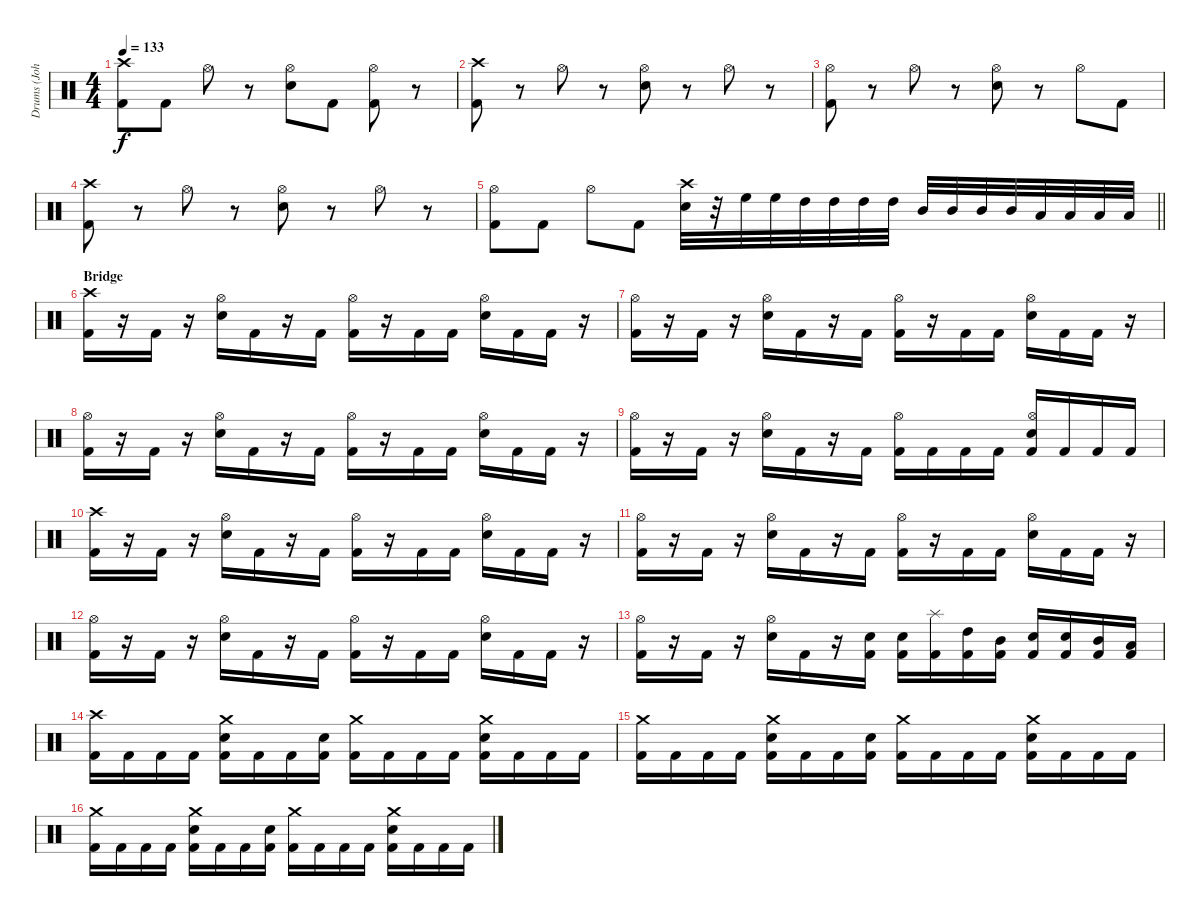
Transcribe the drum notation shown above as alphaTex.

\track ("Drums (John)" "Drums (Joh") {instrument percussion}
\staff {score}
\articulation defaults
\ts (4 4)
\tempo 133
\clef neutral
\ks c
("Crash high (hit)" "Kick (hit) 2").8{dy f} "Kick (hit) 2".8 "Hi-Hat (open)".8 r.8 ("Hi-Hat (open)" "Electric Snare (hit)").8 "Kick (hit) 2".8 ("Hi-Hat (open)" "Kick (hit) 2").8 r.8 |
("Crash high (hit)" "Kick (hit) 2").8 r.8 "Hi-Hat (open)".8 r.8 ("Hi-Hat (open)" "Electric Snare (hit)").8 r.8 "Hi-Hat (open)".8 r.8 |
("Hi-Hat (open)" "Kick (hit) 2").8 r.8 "Hi-Hat (open)".8 r.8 ("Hi-Hat (open)" "Electric Snare (hit)").8 r.8 "Hi-Hat (open)".8 "Kick (hit) 2".8 |
("Crash high (hit)" "Kick (hit) 2").8 r.8 "Hi-Hat (open)".8 r.8 ("Hi-Hat (open)" "Electric Snare (hit)").8 r.8 "Hi-Hat (open)".8 r.8 |
\barLineRight lightlight
("Hi-Hat (open)" "Kick (hit) 2").8 "Kick (hit) 2".8 "Hi-Hat (open)".8 "Kick (hit) 2".8 ("Crash high (hit)" "Electric Snare (hit)").32 r.32 "High Floor Tom (hit)".32 "High Floor Tom (hit)".32 "High Tom (hit)".32 "High Tom (hit)".32 "High Tom (hit)".32 "High Tom (hit)".32 "Mid Tom (hit)".32 "Mid Tom (hit)".32 "Mid Tom (hit)".32 "Mid Tom (hit)".32 "Low Tom (hit)".32 "Low Tom (hit)".32 "Low Tom (hit)".32 "Low Tom (hit)".32 |
\section ("" "Bridge")
("Crash high (hit)" "Kick (hit) 2").16 r.16 "Kick (hit) 2".16 r.16 ("Hi-Hat (open)" "Electric Snare (hit)").16 "Kick (hit) 2".16 r.16 "Kick (hit) 2".16 ("Hi-Hat (open)" "Kick (hit) 2").16 r.16 "Kick (hit) 2".16 "Kick (hit) 2".16 ("Hi-Hat (open)" "Electric Snare (hit)").16 "Kick (hit) 2".16 "Kick (hit) 2".16 r.16 |
("Hi-Hat (open)" "Kick (hit) 2").16 r.16 "Kick (hit) 2".16 r.16 ("Hi-Hat (open)" "Electric Snare (hit)").16 "Kick (hit) 2".16 r.16 "Kick (hit) 2".16 ("Hi-Hat (open)" "Kick (hit) 2").16 r.16 "Kick (hit) 2".16 "Kick (hit) 2".16 ("Hi-Hat (open)" "Electric Snare (hit)").16 "Kick (hit) 2".16 "Kick (hit) 2".16 r.16 |
("Hi-Hat (open)" "Kick (hit) 2").16 r.16 "Kick (hit) 2".16 r.16 ("Hi-Hat (open)" "Electric Snare (hit)").16 "Kick (hit) 2".16 r.16 "Kick (hit) 2".16 ("Hi-Hat (open)" "Kick (hit) 2").16 r.16 "Kick (hit) 2".16 "Kick (hit) 2".16 ("Hi-Hat (open)" "Electric Snare (hit)").16 "Kick (hit) 2".16 "Kick (hit) 2".16 r.16 |
("Hi-Hat (open)" "Kick (hit) 2").16 r.16 "Kick (hit) 2".16 r.16 ("Hi-Hat (open)" "Electric Snare (hit)").16 "Kick (hit) 2".16 r.16 "Kick (hit) 2".16 ("Hi-Hat (open)" "Kick (hit) 2").16 "Kick (hit) 2".16 "Kick (hit) 2".16 "Kick (hit) 2".16 ("Hi-Hat (open)" "Electric Snare (hit)" "Kick (hit) 2").16 "Kick (hit) 2".16 "Kick (hit) 2".16 "Kick (hit) 2".16 |
("Crash high (hit)" "Kick (hit) 2").16 r.16 "Kick (hit) 2".16 r.16 ("Hi-Hat (open)" "Electric Snare (hit)").16 "Kick (hit) 2".16 r.16 "Kick (hit) 2".16 ("Hi-Hat (open)" "Kick (hit) 2").16 r.16 "Kick (hit) 2".16 "Kick (hit) 2".16 ("Hi-Hat (open)" "Electric Snare (hit)").16 "Kick (hit) 2".16 "Kick (hit) 2".16 r.16 |
("Hi-Hat (open)" "Kick (hit) 2").16 r.16 "Kick (hit) 2".16 r.16 ("Hi-Hat (open)" "Electric Snare (hit)").16 "Kick (hit) 2".16 r.16 "Kick (hit) 2".16 ("Hi-Hat (open)" "Kick (hit) 2").16 r.16 "Kick (hit) 2".16 "Kick (hit) 2".16 ("Hi-Hat (open)" "Electric Snare (hit)").16 "Kick (hit) 2".16 "Kick (hit) 2".16 r.16 |
("Hi-Hat (open)" "Kick (hit) 2").16 r.16 "Kick (hit) 2".16 r.16 ("Hi-Hat (open)" "Electric Snare (hit)").16 "Kick (hit) 2".16 r.16 "Kick (hit) 2".16 ("Hi-Hat (open)" "Kick (hit) 2").16 r.16 "Kick (hit) 2".16 "Kick (hit) 2".16 ("Hi-Hat (open)" "Electric Snare (hit)").16 "Kick (hit) 2".16 "Kick (hit) 2".16 r.16 |
("Hi-Hat (open)" "Kick (hit) 2").16 r.16 "Kick (hit) 2".16 r.16 ("Hi-Hat (open)" "Electric Snare (hit)").16 "Kick (hit) 2".16 r.16 ("Electric Snare (hit)" "Kick (hit) 2").16 ("Electric Snare (hit)" "Kick (hit) 2").16 ("Splash (hit)" "Kick (hit) 2").16 ("High Tom (hit)" "Kick (hit) 2").16 ("Mid Tom (hit)" "Kick (hit) 2").16 ("Electric Snare (hit)" "Kick (hit) 2").16 ("Electric Snare (hit)" "Kick (hit) 2").16 ("Mid Tom (hit)" "Kick (hit) 2").16 ("Low Tom (hit)" "Kick (hit) 2").16 |
("Crash high (hit)" "Kick (hit) 2").16 "Kick (hit) 2".16 "Kick (hit) 2".16 "Kick (hit) 2".16 ("Crash medium (hit)" "Electric Snare (hit)" "Kick (hit) 2").16 "Kick (hit) 2".16 "Kick (hit) 2".16 ("Electric Snare (hit)" "Kick (hit) 2").16 ("Crash medium (hit)" "Kick (hit) 2").16 "Kick (hit) 2".16 "Kick (hit) 2".16 "Kick (hit) 2".16 ("Crash medium (hit)" "Electric Snare (hit)" "Kick (hit) 2").16 "Kick (hit) 2".16 "Kick (hit) 2".16 "Kick (hit) 2".16 |
("Crash medium (hit)" "Kick (hit) 2").16 "Kick (hit) 2".16 "Kick (hit) 2".16 "Kick (hit) 2".16 ("Crash medium (hit)" "Electric Snare (hit)" "Kick (hit) 2").16 "Kick (hit) 2".16 "Kick (hit) 2".16 ("Electric Snare (hit)" "Kick (hit) 2").16 ("Crash medium (hit)" "Kick (hit) 2").16 "Kick (hit) 2".16 "Kick (hit) 2".16 "Kick (hit) 2".16 ("Crash medium (hit)" "Electric Snare (hit)" "Kick (hit) 2").16 "Kick (hit) 2".16 "Kick (hit) 2".16 "Kick (hit) 2".16 |
("Crash medium (hit)" "Kick (hit) 2").16 "Kick (hit) 2".16 "Kick (hit) 2".16 "Kick (hit) 2".16 ("Crash medium (hit)" "Electric Snare (hit)" "Kick (hit) 2").16 "Kick (hit) 2".16 "Kick (hit) 2".16 ("Electric Snare (hit)" "Kick (hit) 2").16 ("Crash medium (hit)" "Kick (hit) 2").16 "Kick (hit) 2".16 "Kick (hit) 2".16 "Kick (hit) 2".16 ("Crash medium (hit)" "Electric Snare (hit)" "Kick (hit) 2").16 "Kick (hit) 2".16 "Kick (hit) 2".16 "Kick (hit) 2".16
